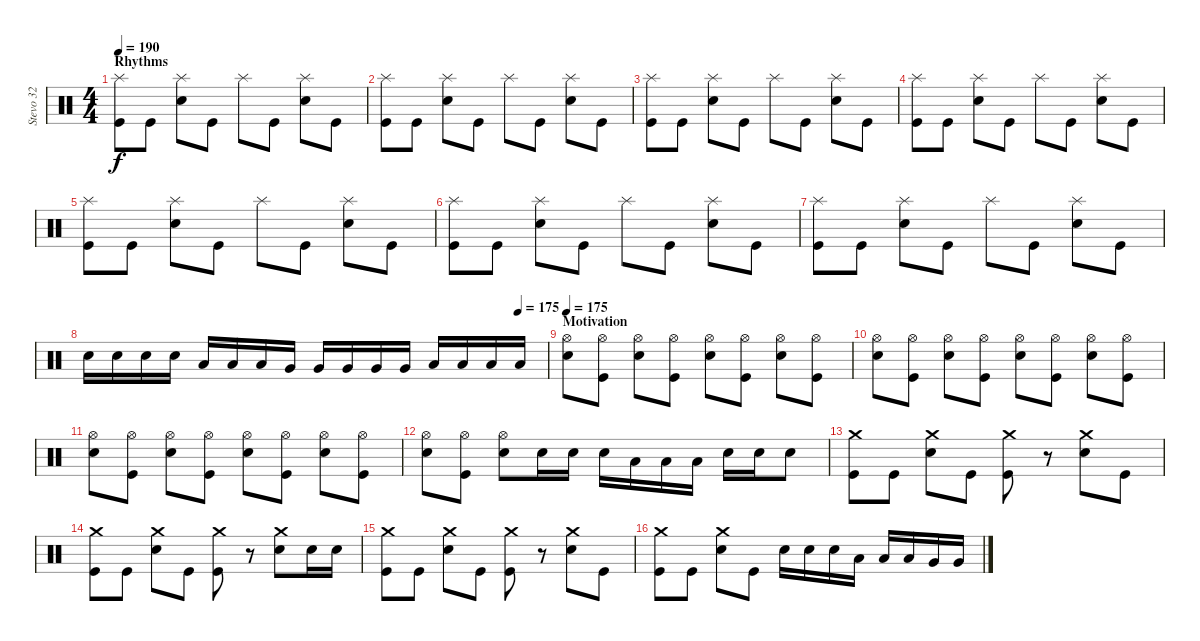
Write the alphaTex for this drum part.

\track ("Stevo 32" "Stevo 32") {instrument percussion}
\staff {score}
\articulation defaults
\ts (4 4)
\section ("" "Rhythms")
\tempo 190
\clef neutral
\ks c
("Splash (hit)" "Kick (hit)").8{dy f} "Kick (hit)".8 ("Splash (hit)" "Electric Snare (hit)").8 "Kick (hit)".8 "Splash (hit)".8 "Kick (hit)".8 ("Splash (hit)" "Electric Snare (hit)").8 "Kick (hit)".8 |
("Splash (hit)" "Kick (hit)").8 "Kick (hit)".8 ("Splash (hit)" "Electric Snare (hit)").8 "Kick (hit)".8 "Splash (hit)".8 "Kick (hit)".8 ("Splash (hit)" "Electric Snare (hit)").8 "Kick (hit)".8 |
("Splash (hit)" "Kick (hit)").8 "Kick (hit)".8 ("Splash (hit)" "Electric Snare (hit)").8 "Kick (hit)".8 "Splash (hit)".8 "Kick (hit)".8 ("Splash (hit)" "Electric Snare (hit)").8 "Kick (hit)".8 |
("Splash (hit)" "Kick (hit)").8 "Kick (hit)".8 ("Splash (hit)" "Electric Snare (hit)").8 "Kick (hit)".8 "Splash (hit)".8 "Kick (hit)".8 ("Splash (hit)" "Electric Snare (hit)").8 "Kick (hit)".8 |
("Splash (hit)" "Kick (hit)").8 "Kick (hit)".8 ("Splash (hit)" "Electric Snare (hit)").8 "Kick (hit)".8 "Splash (hit)".8 "Kick (hit)".8 ("Splash (hit)" "Electric Snare (hit)").8 "Kick (hit)".8 |
("Splash (hit)" "Kick (hit)").8 "Kick (hit)".8 ("Splash (hit)" "Electric Snare (hit)").8 "Kick (hit)".8 "Splash (hit)".8 "Kick (hit)".8 ("Splash (hit)" "Electric Snare (hit)").8 "Kick (hit)".8 |
("Splash (hit)" "Kick (hit)").8 "Kick (hit)".8 ("Splash (hit)" "Electric Snare (hit)").8 "Kick (hit)".8 "Splash (hit)".8 "Kick (hit)".8 ("Splash (hit)" "Electric Snare (hit)").8 "Kick (hit)".8 |
\tempo (175 0.9375)
"Electric Snare (hit)".16 "Electric Snare (hit)".16 "Electric Snare (hit)".16 "Electric Snare (hit)".16 "Low Tom (hit)".16 "Low Tom (hit)".16 "Low Tom (hit)".16 "Very Low Tom (hit)".16 "Very Low Tom (hit)".16 "Very Low Tom (hit)".16 "Very Low Tom (hit)".16 "Very Low Tom (hit)".16 "Low Floor Tom (hit)".16 "Low Floor Tom (hit)".16 "Low Floor Tom (hit)".16 "Low Floor Tom (hit)".16 |
\section ("" "Motivation")
\tempo 175
("Hi-Hat (open)" "Electric Snare (hit)").8 ("Hi-Hat (open)" "Kick (hit)").8 ("Hi-Hat (open)" "Electric Snare (hit)").8 ("Hi-Hat (open)" "Kick (hit)").8 ("Hi-Hat (open)" "Electric Snare (hit)").8 ("Hi-Hat (open)" "Kick (hit)").8 ("Hi-Hat (open)" "Electric Snare (hit)").8 ("Hi-Hat (open)" "Kick (hit)").8 |
("Hi-Hat (open)" "Electric Snare (hit)").8 ("Hi-Hat (open)" "Kick (hit)").8 ("Hi-Hat (open)" "Electric Snare (hit)").8 ("Hi-Hat (open)" "Kick (hit)").8 ("Hi-Hat (open)" "Electric Snare (hit)").8 ("Hi-Hat (open)" "Kick (hit)").8 ("Hi-Hat (open)" "Electric Snare (hit)").8 ("Hi-Hat (open)" "Kick (hit)").8 |
("Hi-Hat (open)" "Electric Snare (hit)").8 ("Hi-Hat (open)" "Kick (hit)").8 ("Hi-Hat (open)" "Electric Snare (hit)").8 ("Hi-Hat (open)" "Kick (hit)").8 ("Hi-Hat (open)" "Electric Snare (hit)").8 ("Hi-Hat (open)" "Kick (hit)").8 ("Hi-Hat (open)" "Electric Snare (hit)").8 ("Hi-Hat (open)" "Kick (hit)").8 |
("Hi-Hat (open)" "Electric Snare (hit)").8 ("Hi-Hat (open)" "Kick (hit)").8 ("Hi-Hat (open)" "Electric Snare (hit)").8 "Electric Snare (hit)".16 "Electric Snare (hit)".16 "Electric Snare (hit)".16 "Low Tom (hit)".16 "Low Tom (hit)".16 "Low Tom (hit)".16 "Electric Snare (hit)".16 "Electric Snare (hit)".16 "Electric Snare (hit)".8 |
("Crash medium (hit)" "Kick (hit)").8 "Kick (hit)".8 ("Crash medium (hit)" "Electric Snare (hit)").8 "Kick (hit)".8 ("Crash medium (hit)" "Kick (hit)").8 r.8 ("Crash medium (hit)" "Electric Snare (hit)").8 "Kick (hit)".8 |
("Crash medium (hit)" "Kick (hit)").8 "Kick (hit)".8 ("Crash medium (hit)" "Electric Snare (hit)").8 "Kick (hit)".8 ("Crash medium (hit)" "Kick (hit)").8 r.8 ("Crash medium (hit)" "Electric Snare (hit)").8 "Electric Snare (hit)".16 "Electric Snare (hit)".16 |
("Crash medium (hit)" "Kick (hit)").8 "Kick (hit)".8 ("Crash medium (hit)" "Electric Snare (hit)").8 "Kick (hit)".8 ("Crash medium (hit)" "Kick (hit)").8 r.8 ("Crash medium (hit)" "Electric Snare (hit)").8 "Kick (hit)".8 |
("Crash medium (hit)" "Kick (hit)").8 "Kick (hit)".8 ("Crash medium (hit)" "Electric Snare (hit)").8 "Kick (hit)".8 "Electric Snare (hit)".16 "Electric Snare (hit)".16 "Electric Snare (hit)".16 "Low Tom (hit)".16 "Low Tom (hit)".16 "Low Tom (hit)".16 "Very Low Tom (hit)".16 "Very Low Tom (hit)".16
